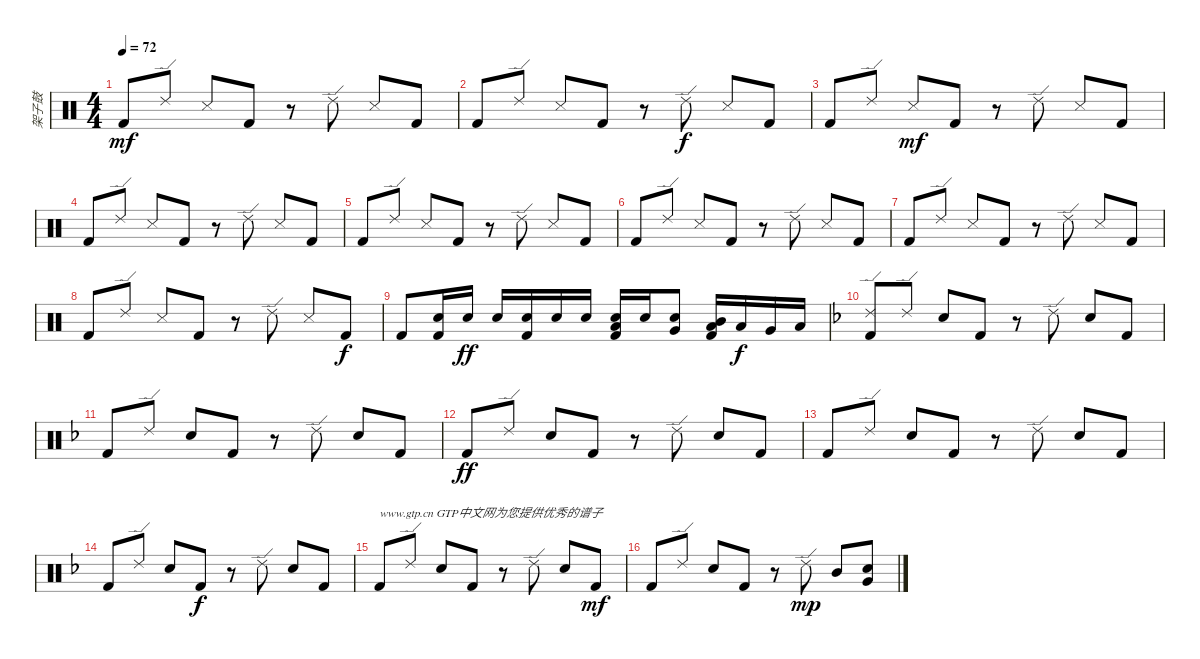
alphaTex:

\track ("架子鼓" "架子鼓") {instrument percussion}
\staff {score}
\articulation defaults
\ts (4 4)
\tempo 72
\clef neutral
\ks c "Kick (hit) 2".8{dy mf} "Ride (edge) 2".8 "Metronome (hit)".8 "Kick (hit) 2".8
r.8 "Ride (edge) 2".8 "Metronome (hit)".8 "Kick (hit) 2".8 |
"Kick (hit) 2".8 "Ride (edge) 2".8 "Metronome (hit)".8 "Kick (hit) 2".8 r.8 "Ride (edge) 2".8{dy f} "Metronome (hit)".8 "Kick (hit) 2".8 |
"Kick (hit) 2".8 "Ride (edge) 2".8 "Metronome (hit)".8{dy mf} "Kick (hit) 2".8 r.8 "Ride (edge) 2".8 "Metronome (hit)".8 "Kick (hit) 2".8 |
"Kick (hit) 2".8 "Ride (edge) 2".8 "Metronome (hit)".8 "Kick (hit) 2".8 r.8 "Ride (edge) 2".8 "Metronome (hit)".8 "Kick (hit) 2".8 |
"Kick (hit) 2".8 "Ride (edge) 2".8 "Metronome (hit)".8 "Kick (hit) 2".8 r.8 "Ride (edge) 2".8 "Metronome (hit)".8 "Kick (hit) 2".8 |
"Kick (hit) 2".8 "Ride (edge) 2".8 "Metronome (hit)".8 "Kick (hit) 2".8 r.8 "Ride (edge) 2".8 "Metronome (hit)".8 "Kick (hit) 2".8 |
"Kick (hit) 2".8 "Ride (edge) 2".8 "Metronome (hit)".8 "Kick (hit) 2".8 r.8 "Ride (edge) 2".8 "Metronome (hit)".8 "Kick (hit) 2".8 |
"Kick (hit) 2".8 "Ride (edge) 2".8 "Metronome (hit)".8 "Kick (hit) 2".8 r.8 "Ride (edge) 2".8 "Metronome (hit)".8 "Kick (hit) 2".8{dy f} |
"Kick (hit) 2".8 ("Kick (hit) 2" "Snare (hit) 2").16 "Snare (hit) 2".16{dy ff} "Electric Snare (hit)".16 ("Kick (hit) 2" "Snare (hit) 2").16 "Snare (hit) 2".16 "Electric Snare (hit)".16 ("Low Tom (hit)" "Kick (hit) 2" "Snare (hit) 2").16 "Snare (hit) 2".16 ("Very Low Tom (hit)" "Snare (hit) 2").8 ("Low Floor Tom (hit)" "Mid Tom (hit)" "Kick (hit) 2").16 "Low Tom (hit)".16{dy f} "Very Low Tom (hit)".16 "Low Floor Tom (hit)".16 |
\ks f
("Kick (hit) 2" "Ride (edge) 2").8 "Ride (edge) 2".8 "Snare (hit) 2".8 "Kick (hit) 2".8 r.8 "Ride (edge) 2".8 "Snare (hit) 2".8 "Kick (hit) 2".8 |
"Kick (hit) 2".8 "Ride (edge) 2".8 "Snare (hit) 2".8 "Kick (hit) 2".8 r.8 "Ride (edge) 2".8 "Snare (hit) 2".8 "Kick (hit) 2".8 |
"Kick (hit) 2".8{dy ff} "Ride (edge) 2".8 "Snare (hit) 2".8 "Kick (hit) 2".8 r.8 "Ride (edge) 2".8 "Snare (hit) 2".8 "Kick (hit) 2".8 |
"Kick (hit) 2".8 "Ride (edge) 2".8 "Snare (hit) 2".8 "Kick (hit) 2".8 r.8 "Ride (edge) 2".8 "Snare (hit) 2".8 "Kick (hit) 2".8 |
"Kick (hit) 2".8 "Ride (edge) 2".8 "Snare (hit) 2".8 "Kick (hit) 2".8{dy f} r.8 "Ride (edge) 2".8 "Snare (hit) 2".8 "Kick (hit) 2".8 |
"Kick (hit) 2".8{txt "www.gtp.cn GTP中文网为您提供优秀的谱子"} "Ride (edge) 2".8 "Snare (hit) 2".8 "Kick (hit) 2".8 r.8 "Ride (edge) 2".8 "Snare (hit) 2".8 "Kick (hit) 2".8{dy mf} |
"Kick (hit) 2".8 "Ride (edge) 2".8 "Snare (hit) 2".8 "Kick (hit) 2".8 r.8 "Ride (edge) 2".8{dy mp} "Mid Tom (hit)".8 ("Electric Snare (hit)" "Very Low Tom (hit)").8
